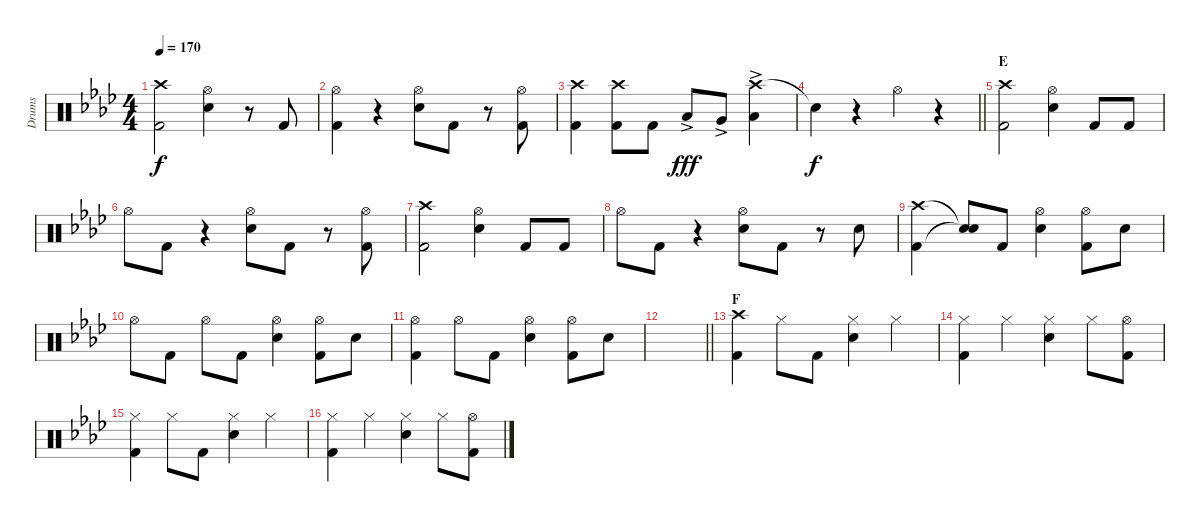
\track ("Drums" "Drums") {instrument percussion}
\staff {score}
\articulation defaults
\ts (4 4)
\tempo 170
\clef neutral
\ks ab
("Crash high (hit)" "Kick (hit) 2").2{dy f} ("Hi-Hat (open)" "Snare (hit) 2").4 r.8 "Kick (hit) 2".8 |
("Hi-Hat (open)" "Kick (hit) 2").4 r.4 ("Hi-Hat (open)" "Snare (hit) 2").8 "Kick (hit) 2".8 r.8 ("Hi-Hat (open)" "Kick (hit) 2").8 |
("Crash high (hit)" "Kick (hit) 2").4 ("Crash high (hit)" "Kick (hit) 2").8 "Kick (hit) 2".8 "Low Tom (hit)"{ac}.8{dy fff} "Very Low Tom (hit)"{ac}.8 ("Crash high (hit)" "Low Floor Tom (hit)"{ac}).4 |
\barLineRight lightlight "Snare (hit)"{t}.4{dy f}
r.4 "Hi-Hat (open)".4 r.4 |
\section ("" "E")
("Crash high (hit)" "Kick (hit) 2").2 ("Hi-Hat (open)" "Snare (hit) 2").4 "Kick (hit) 2".8 "Kick (hit) 2".8 |
"Hi-Hat (open)".8 "Kick (hit) 2".8 r.4 ("Hi-Hat (open)" "Snare (hit) 2").8 "Kick (hit) 2".8 r.8 ("Hi-Hat (open)" "Kick (hit) 2").8 |
("Crash high (hit)" "Kick (hit) 2").2 ("Hi-Hat (open)" "Snare (hit) 2").4 "Kick (hit) 2".8 "Kick (hit) 2".8 |
"Hi-Hat (open)".8 "Kick (hit) 2".8 r.4 ("Hi-Hat (open)" "Snare (hit) 2").8 "Kick (hit) 2".8 r.8 "Snare (hit) 2".8 |
("Crash high (hit)" "Kick (hit) 2").4 ("Snare (hit)"{t} "Snare (hit)"{t}).8 "Kick (hit) 2".8 ("Hi-Hat (open)" "Snare (hit) 2").4 ("Hi-Hat (open)" "Kick (hit) 2").8 "Snare (hit) 2".8 |
"Hi-Hat (open)".8 "Kick (hit) 2".8 "Hi-Hat (open)".8 "Kick (hit) 2".8 ("Hi-Hat (open)" "Snare (hit) 2").4 ("Hi-Hat (open)" "Kick (hit) 2").8 "Snare (hit) 2".8 |
("Hi-Hat (open)" "Kick (hit) 2").4 "Hi-Hat (open)".8 "Kick (hit) 2".8 ("Hi-Hat (open)" "Snare (hit) 2").4 ("Hi-Hat (open)" "Kick (hit) 2").8 "Snare (hit) 2".8 |
\barLineRight lightlight
|
\section ("" "F")
("Crash high (hit)" "Kick (hit) 2").4 "Hi-Hat (closed)".8 "Kick (hit) 2".8 ("Hi-Hat (closed)" "Snare (hit) 2").4 "Hi-Hat (closed)".4 |
("Hi-Hat (closed)" "Kick (hit) 2").4 "Hi-Hat (closed)".4 ("Hi-Hat (closed)" "Snare (hit) 2").4 "Hi-Hat (closed)".8 ("Hi-Hat (open)" "Kick (hit) 2").8 |
("Hi-Hat (closed)" "Kick (hit) 2").4 "Hi-Hat (closed)".8 "Kick (hit) 2".8 ("Hi-Hat (closed)" "Snare (hit) 2").4 "Hi-Hat (closed)".4 |
("Hi-Hat (closed)" "Kick (hit) 2").4 "Hi-Hat (closed)".4 ("Hi-Hat (closed)" "Snare (hit) 2").4 "Hi-Hat (closed)".8 ("Hi-Hat (open)" "Kick (hit) 2").8
